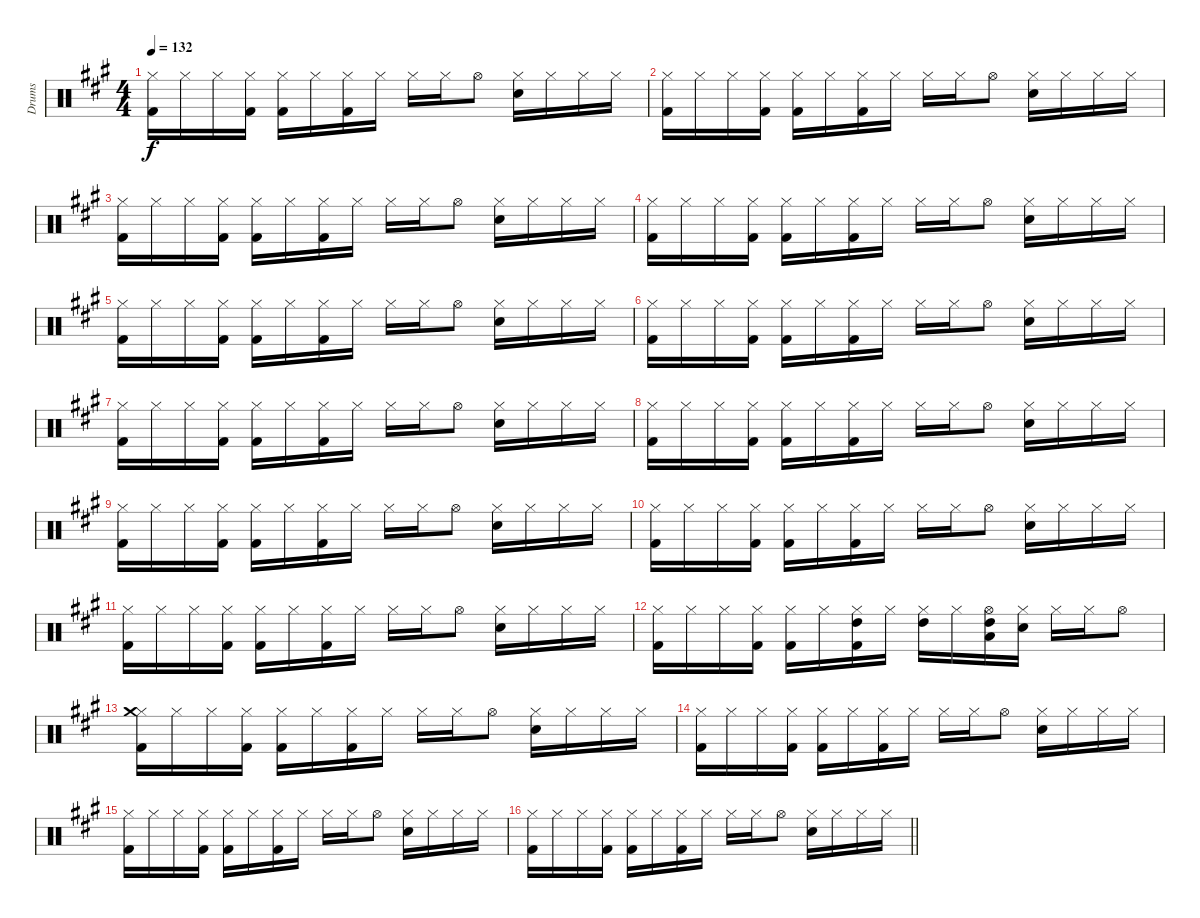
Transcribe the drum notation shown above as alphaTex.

\track ("Drums" "Drums") {instrument percussion}
\staff {score}
\articulation defaults
\ts (4 4)
\tempo 132
\clef neutral
\ks a
("Kick (hit) 2" "Hi-Hat (closed)").16{dy f volume 0} "Hi-Hat (closed)".16{volume 0} "Hi-Hat (closed)".16{volume 0} ("Kick (hit) 2" "Hi-Hat (closed)").16{volume 1} ("Kick (hit) 2" "Hi-Hat (closed)").16{volume 1} "Hi-Hat (closed)".16{volume 1} ("Kick (hit) 2" "Hi-Hat (closed)").16{volume 2} "Hi-Hat (closed)".16{volume 2} "Hi-Hat (closed)".16{volume 2} "Hi-Hat (closed)".16{volume 2} "Hi-Hat (open)".8{volume 3} ("Snare (hit) 2" "Hi-Hat (closed)").16{volume 3} "Hi-Hat (closed)".16{volume 4} "Hi-Hat (closed)".16{volume 4} "Hi-Hat (closed)".16{volume 4} |
("Kick (hit) 2" "Hi-Hat (closed)").16{volume 4} "Hi-Hat (closed)".16{volume 5} "Hi-Hat (closed)".16{volume 5} ("Kick (hit) 2" "Hi-Hat (closed)").16{volume 6} ("Kick (hit) 2" "Hi-Hat (closed)").16{volume 6} "Hi-Hat (closed)".16{volume 6} ("Kick (hit) 2" "Hi-Hat (closed)").16{volume 7} "Hi-Hat (closed)".16{volume 7} "Hi-Hat (closed)".16{volume 8} "Hi-Hat (closed)".16{volume 8} "Hi-Hat (open)".8{volume 8} ("Snare (hit) 2" "Hi-Hat (closed)").16{volume 9} "Hi-Hat (closed)".16{volume 10} "Hi-Hat (closed)".16{volume 10} "Hi-Hat (closed)".16{volume 10} |
("Kick (hit) 2" "Hi-Hat (closed)").16{volume 11} "Hi-Hat (closed)".16{volume 11} "Hi-Hat (closed)".16{volume 11} ("Kick (hit) 2" "Hi-Hat (closed)").16{volume 12} ("Kick (hit) 2" "Hi-Hat (closed)").16{volume 12} "Hi-Hat (closed)".16{volume 12} ("Kick (hit) 2" "Hi-Hat (closed)").16{volume 13} "Hi-Hat (closed)".16{volume 13} "Hi-Hat (closed)".16{volume 13} "Hi-Hat (closed)".16{volume 14} "Hi-Hat (open)".8{volume 14} ("Snare (hit) 2" "Hi-Hat (closed)").16{volume 14} "Hi-Hat (closed)".16{volume 15} "Hi-Hat (closed)".16{volume 15} "Hi-Hat (closed)".16{volume 16} |
("Kick (hit) 2" "Hi-Hat (closed)").16{volume 12} "Hi-Hat (closed)".16 "Hi-Hat (closed)".16 ("Kick (hit) 2" "Hi-Hat (closed)").16 ("Kick (hit) 2" "Hi-Hat (closed)").16 "Hi-Hat (closed)".16 ("Kick (hit) 2" "Hi-Hat (closed)").16 "Hi-Hat (closed)".16 "Hi-Hat (closed)".16 "Hi-Hat (closed)".16 "Hi-Hat (open)".8 ("Snare (hit) 2" "Hi-Hat (closed)").16 "Hi-Hat (closed)".16 "Hi-Hat (closed)".16 "Hi-Hat (closed)".16 |
("Kick (hit) 2" "Hi-Hat (closed)").16 "Hi-Hat (closed)".16 "Hi-Hat (closed)".16 ("Kick (hit) 2" "Hi-Hat (closed)").16 ("Kick (hit) 2" "Hi-Hat (closed)").16 "Hi-Hat (closed)".16 ("Kick (hit) 2" "Hi-Hat (closed)").16 "Hi-Hat (closed)".16 "Hi-Hat (closed)".16 "Hi-Hat (closed)".16 "Hi-Hat (open)".8 ("Snare (hit) 2" "Hi-Hat (closed)").16 "Hi-Hat (closed)".16 "Hi-Hat (closed)".16 "Hi-Hat (closed)".16 |
("Kick (hit) 2" "Hi-Hat (closed)").16 "Hi-Hat (closed)".16 "Hi-Hat (closed)".16 ("Kick (hit) 2" "Hi-Hat (closed)").16 ("Kick (hit) 2" "Hi-Hat (closed)").16 "Hi-Hat (closed)".16 ("Kick (hit) 2" "Hi-Hat (closed)").16 "Hi-Hat (closed)".16 "Hi-Hat (closed)".16 "Hi-Hat (closed)".16 "Hi-Hat (open)".8 ("Snare (hit) 2" "Hi-Hat (closed)").16 "Hi-Hat (closed)".16 "Hi-Hat (closed)".16 "Hi-Hat (closed)".16 |
("Kick (hit) 2" "Hi-Hat (closed)").16 "Hi-Hat (closed)".16 "Hi-Hat (closed)".16 ("Kick (hit) 2" "Hi-Hat (closed)").16 ("Kick (hit) 2" "Hi-Hat (closed)").16 "Hi-Hat (closed)".16 ("Kick (hit) 2" "Hi-Hat (closed)").16 "Hi-Hat (closed)".16 "Hi-Hat (closed)".16 "Hi-Hat (closed)".16 "Hi-Hat (open)".8 ("Snare (hit) 2" "Hi-Hat (closed)").16 "Hi-Hat (closed)".16 "Hi-Hat (closed)".16 "Hi-Hat (closed)".16 |
("Kick (hit) 2" "Hi-Hat (closed)").16 "Hi-Hat (closed)".16 "Hi-Hat (closed)".16 ("Kick (hit) 2" "Hi-Hat (closed)").16 ("Kick (hit) 2" "Hi-Hat (closed)").16 "Hi-Hat (closed)".16 ("Kick (hit) 2" "Hi-Hat (closed)").16 "Hi-Hat (closed)".16 "Hi-Hat (closed)".16 "Hi-Hat (closed)".16 "Hi-Hat (open)".8 ("Snare (hit) 2" "Hi-Hat (closed)").16 "Hi-Hat (closed)".16 "Hi-Hat (closed)".16 "Hi-Hat (closed)".16 |
("Kick (hit) 2" "Hi-Hat (closed)").16 "Hi-Hat (closed)".16 "Hi-Hat (closed)".16 ("Kick (hit) 2" "Hi-Hat (closed)").16 ("Kick (hit) 2" "Hi-Hat (closed)").16 "Hi-Hat (closed)".16 ("Kick (hit) 2" "Hi-Hat (closed)").16 "Hi-Hat (closed)".16 "Hi-Hat (closed)".16 "Hi-Hat (closed)".16 "Hi-Hat (open)".8 ("Snare (hit) 2" "Hi-Hat (closed)").16 "Hi-Hat (closed)".16 "Hi-Hat (closed)".16 "Hi-Hat (closed)".16 |
("Kick (hit) 2" "Hi-Hat (closed)").16 "Hi-Hat (closed)".16 "Hi-Hat (closed)".16 ("Kick (hit) 2" "Hi-Hat (closed)").16 ("Kick (hit) 2" "Hi-Hat (closed)").16 "Hi-Hat (closed)".16 ("Kick (hit) 2" "Hi-Hat (closed)").16 "Hi-Hat (closed)".16 "Hi-Hat (closed)".16 "Hi-Hat (closed)".16 "Hi-Hat (open)".8 ("Snare (hit) 2" "Hi-Hat (closed)").16 "Hi-Hat (closed)".16 "Hi-Hat (closed)".16 "Hi-Hat (closed)".16 |
("Kick (hit) 2" "Hi-Hat (closed)").16 "Hi-Hat (closed)".16 "Hi-Hat (closed)".16 ("Kick (hit) 2" "Hi-Hat (closed)").16 ("Kick (hit) 2" "Hi-Hat (closed)").16 "Hi-Hat (closed)".16 ("Kick (hit) 2" "Hi-Hat (closed)").16 "Hi-Hat (closed)".16 "Hi-Hat (closed)".16 "Hi-Hat (closed)".16 "Hi-Hat (open)".8 ("Snare (hit) 2" "Hi-Hat (closed)").16 "Hi-Hat (closed)".16 "Hi-Hat (closed)".16 "Hi-Hat (closed)".16 |
("Kick (hit) 2" "Hi-Hat (closed)").16 "Hi-Hat (closed)".16 "Hi-Hat (closed)".16 ("Kick (hit) 2" "Hi-Hat (closed)").16 ("Kick (hit) 2" "Hi-Hat (closed)").16 "Hi-Hat (closed)".16 ("Kick (hit) 2" "Hi-Hat (closed)" "High Tom (hit)").16 "Hi-Hat (closed)".16 ("Hi-Hat (closed)" "High Tom (hit)").16 "Hi-Hat (closed)".16 ("Low Tom (hit)" "Hi-Hat (open)" "High Tom (hit)").16 ("Snare (hit) 2" "Hi-Hat (closed)").16 "Hi-Hat (closed)".16 "Hi-Hat (closed)".16 "Hi-Hat (open)".8 |
("Kick (hit) 2" "Hi-Hat (closed)" "Crash medium (hit)").16 "Hi-Hat (closed)".16 "Hi-Hat (closed)".16 ("Kick (hit) 2" "Hi-Hat (closed)").16 ("Kick (hit) 2" "Hi-Hat (closed)").16 "Hi-Hat (closed)".16 ("Kick (hit) 2" "Hi-Hat (closed)").16 "Hi-Hat (closed)".16 "Hi-Hat (closed)".16 "Hi-Hat (closed)".16 "Hi-Hat (open)".8 ("Snare (hit) 2" "Hi-Hat (closed)").16 "Hi-Hat (closed)".16 "Hi-Hat (closed)".16 "Hi-Hat (closed)".16 |
("Kick (hit) 2" "Hi-Hat (closed)").16 "Hi-Hat (closed)".16 "Hi-Hat (closed)".16 ("Kick (hit) 2" "Hi-Hat (closed)").16 ("Kick (hit) 2" "Hi-Hat (closed)").16 "Hi-Hat (closed)".16 ("Kick (hit) 2" "Hi-Hat (closed)").16 "Hi-Hat (closed)".16 "Hi-Hat (closed)".16 "Hi-Hat (closed)".16 "Hi-Hat (open)".8 ("Snare (hit) 2" "Hi-Hat (closed)").16 "Hi-Hat (closed)".16 "Hi-Hat (closed)".16 "Hi-Hat (closed)".16 |
("Kick (hit) 2" "Hi-Hat (closed)").16 "Hi-Hat (closed)".16 "Hi-Hat (closed)".16 ("Kick (hit) 2" "Hi-Hat (closed)").16 ("Kick (hit) 2" "Hi-Hat (closed)").16 "Hi-Hat (closed)".16 ("Kick (hit) 2" "Hi-Hat (closed)").16 "Hi-Hat (closed)".16 "Hi-Hat (closed)".16 "Hi-Hat (closed)".16 "Hi-Hat (open)".8 ("Snare (hit) 2" "Hi-Hat (closed)").16 "Hi-Hat (closed)".16 "Hi-Hat (closed)".16 "Hi-Hat (closed)".16 |
\barLineRight lightlight
("Kick (hit) 2" "Hi-Hat (closed)").16 "Hi-Hat (closed)".16 "Hi-Hat (closed)".16 ("Kick (hit) 2" "Hi-Hat (closed)").16 ("Kick (hit) 2" "Hi-Hat (closed)").16 "Hi-Hat (closed)".16 ("Kick (hit) 2" "Hi-Hat (closed)").16 "Hi-Hat (closed)".16 "Hi-Hat (closed)".16 "Hi-Hat (closed)".16 "Hi-Hat (open)".8 ("Snare (hit) 2" "Hi-Hat (closed)").16 "Hi-Hat (closed)".16 "Hi-Hat (closed)".16 "Hi-Hat (closed)".16
